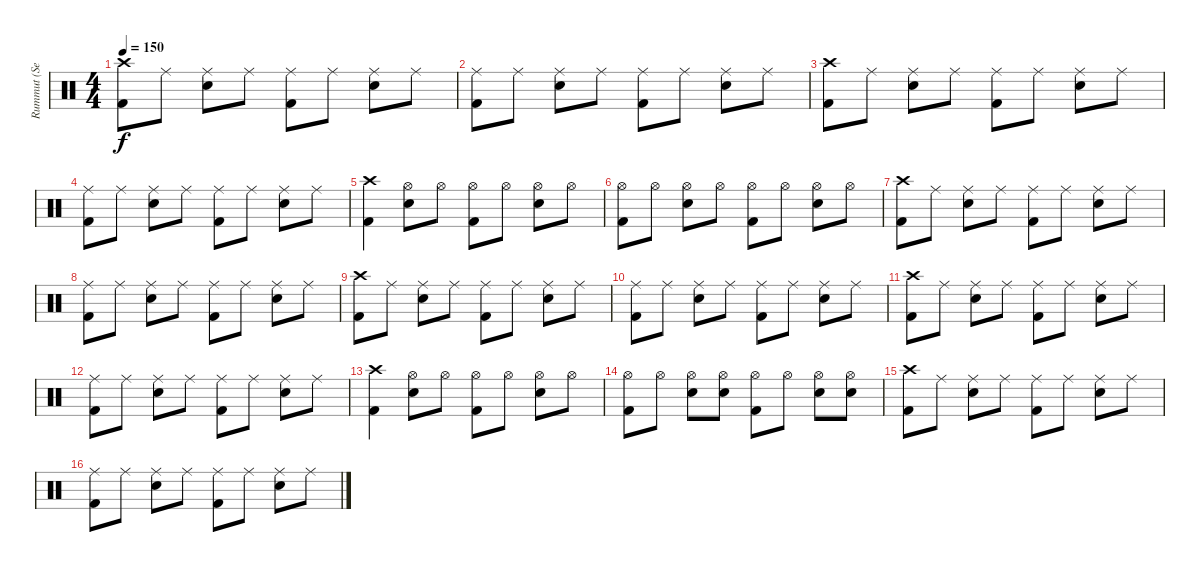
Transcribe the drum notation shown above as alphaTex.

\track ("Rummut (Seppo Pohjolainen)" "Rummut (Se") {instrument percussion}
\staff {score}
\articulation defaults
\ts (4 4)
\tempo 150
\clef neutral
\ks c
("Crash high (hit)" "Kick (hit) 2").8{dy f} "Ride (middle)".8 ("Ride (middle)" "Snare (hit) 2").8 "Ride (middle)".8 ("Ride (middle)" "Kick (hit) 2").8 "Ride (middle)".8 ("Ride (middle)" "Snare (hit) 2").8 "Ride (middle)".8 |
("Ride (middle)" "Kick (hit) 2").8 "Ride (middle)".8 ("Ride (middle)" "Snare (hit) 2").8 "Ride (middle)".8 ("Ride (middle)" "Kick (hit) 2").8 "Ride (middle)".8 ("Ride (middle)" "Snare (hit) 2").8 "Ride (middle)".8 |
("Crash high (hit)" "Kick (hit) 2").8 "Ride (middle)".8 ("Ride (middle)" "Snare (hit) 2").8 "Ride (middle)".8 ("Ride (middle)" "Kick (hit) 2").8 "Ride (middle)".8 ("Ride (middle)" "Snare (hit) 2").8 "Ride (middle)".8 |
("Ride (middle)" "Kick (hit) 2").8 "Ride (middle)".8 ("Ride (middle)" "Snare (hit) 2").8 "Ride (middle)".8 ("Ride (middle)" "Kick (hit) 2").8 "Ride (middle)".8 ("Ride (middle)" "Snare (hit) 2").8 "Ride (middle)".8 |
("Crash high (hit)" "Kick (hit) 2").4 ("Hi-Hat (open)" "Snare (hit) 2").8 "Hi-Hat (open)".8 ("Hi-Hat (open)" "Kick (hit) 2").8 "Hi-Hat (open)".8 ("Hi-Hat (open)" "Snare (hit) 2").8 "Hi-Hat (open)".8 |
("Hi-Hat (open)" "Kick (hit) 2").8 "Hi-Hat (open)".8 ("Hi-Hat (open)" "Snare (hit) 2").8 "Hi-Hat (open)".8 ("Hi-Hat (open)" "Kick (hit) 2").8 "Hi-Hat (open)".8 ("Hi-Hat (open)" "Snare (hit) 2").8 "Hi-Hat (open)".8 |
("Crash high (hit)" "Kick (hit) 2").8 "Ride (middle)".8 ("Ride (middle)" "Snare (hit) 2").8 "Ride (middle)".8 ("Ride (middle)" "Kick (hit) 2").8 "Ride (middle)".8 ("Ride (middle)" "Snare (hit) 2").8 "Ride (middle)".8 |
("Ride (middle)" "Kick (hit) 2").8 "Ride (middle)".8 ("Ride (middle)" "Snare (hit) 2").8 "Ride (middle)".8 ("Ride (middle)" "Kick (hit) 2").8 "Ride (middle)".8 ("Ride (middle)" "Snare (hit) 2").8 "Ride (middle)".8 |
("Crash high (hit)" "Kick (hit) 2").8 "Ride (middle)".8 ("Ride (middle)" "Snare (hit) 2").8 "Ride (middle)".8 ("Ride (middle)" "Kick (hit) 2").8 "Ride (middle)".8 ("Ride (middle)" "Snare (hit) 2").8 "Ride (middle)".8 |
("Ride (middle)" "Kick (hit) 2").8 "Ride (middle)".8 ("Ride (middle)" "Snare (hit) 2").8 "Ride (middle)".8 ("Ride (middle)" "Kick (hit) 2").8 "Ride (middle)".8 ("Ride (middle)" "Snare (hit) 2").8 "Ride (middle)".8 |
("Crash high (hit)" "Kick (hit) 2").8 "Ride (middle)".8 ("Ride (middle)" "Snare (hit) 2").8 "Ride (middle)".8 ("Ride (middle)" "Kick (hit) 2").8 "Ride (middle)".8 ("Ride (middle)" "Snare (hit) 2").8 "Ride (middle)".8 |
("Ride (middle)" "Kick (hit) 2").8 "Ride (middle)".8 ("Ride (middle)" "Snare (hit) 2").8 "Ride (middle)".8 ("Ride (middle)" "Kick (hit) 2").8 "Ride (middle)".8 ("Ride (middle)" "Snare (hit) 2").8 "Ride (middle)".8 |
("Crash high (hit)" "Kick (hit) 2").4 ("Hi-Hat (open)" "Snare (hit) 2").8 "Hi-Hat (open)".8 ("Hi-Hat (open)" "Kick (hit) 2").8 "Hi-Hat (open)".8 ("Hi-Hat (open)" "Snare (hit) 2").8 "Hi-Hat (open)".8 |
("Hi-Hat (open)" "Kick (hit) 2").8 "Hi-Hat (open)".8 ("Hi-Hat (open)" "Snare (hit) 2").8 ("Hi-Hat (open)" "Snare (hit) 2").8 ("Hi-Hat (open)" "Kick (hit) 2").8 "Hi-Hat (open)".8 ("Hi-Hat (open)" "Snare (hit) 2").8 ("Hi-Hat (open)" "Snare (hit) 2").8 |
("Crash high (hit)" "Kick (hit) 2").8 "Ride (middle)".8 ("Ride (middle)" "Snare (hit) 2").8 "Ride (middle)".8 ("Ride (middle)" "Kick (hit) 2").8 "Ride (middle)".8 ("Ride (middle)" "Snare (hit) 2").8 "Ride (middle)".8 |
("Ride (middle)" "Kick (hit) 2").8 "Ride (middle)".8 ("Ride (middle)" "Snare (hit) 2").8 "Ride (middle)".8 ("Ride (middle)" "Kick (hit) 2").8 "Ride (middle)".8 ("Ride (middle)" "Snare (hit) 2").8 "Ride (middle)".8
